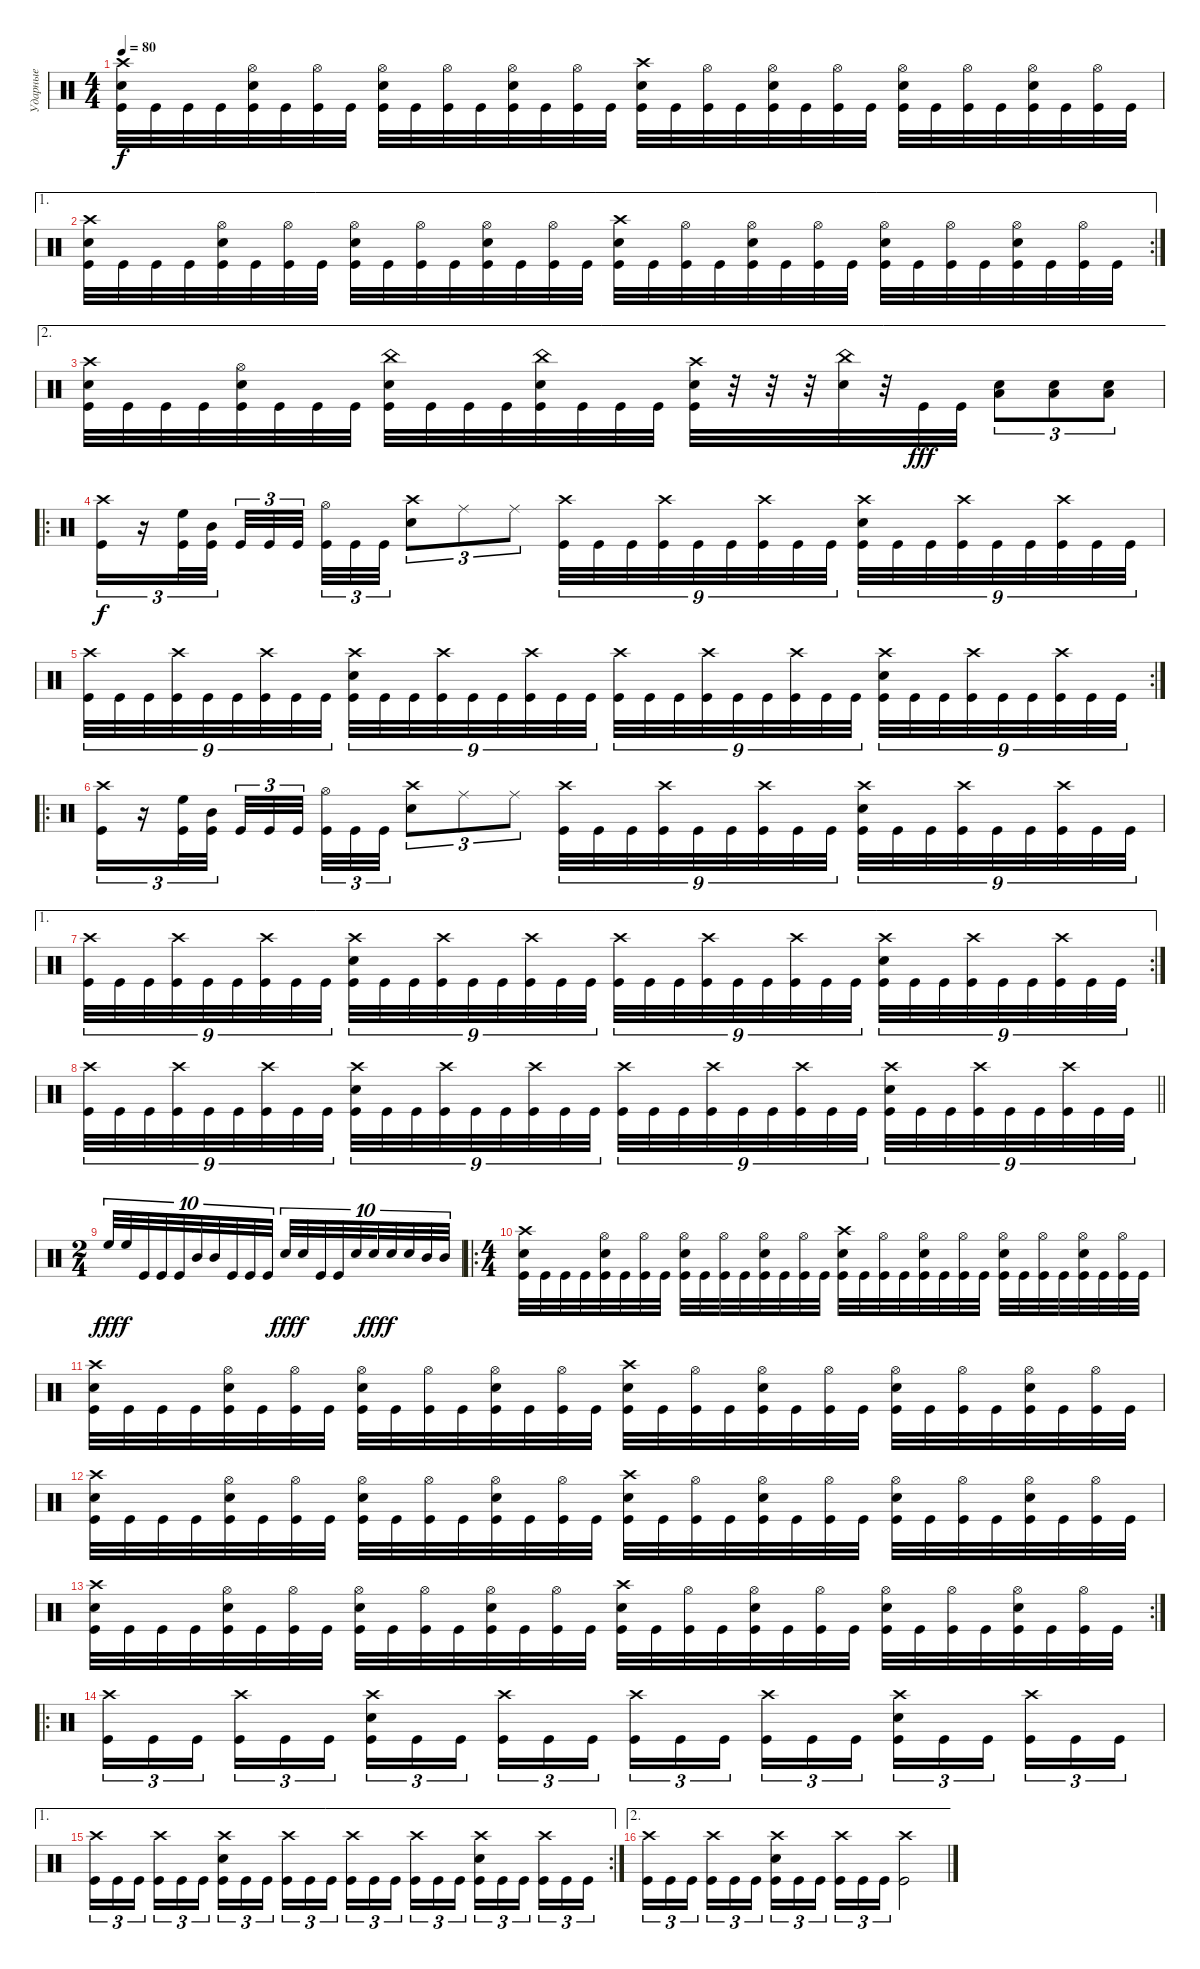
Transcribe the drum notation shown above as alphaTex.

\track ("Ударные" "Ударные") {instrument percussion}
\staff {score}
\articulation defaults
\ts (4 4)
\tempo 80
\clef neutral
\ks c
("Crash high (hit)" "Snare (hit) 2" "Kick (hit)").32{dy f} "Kick (hit)".32 "Kick (hit)".32 "Kick (hit)".32 ("Hi-Hat (open)" "Snare (hit) 2" "Kick (hit)").32 "Kick (hit)".32 ("Hi-Hat (open)" "Kick (hit)").32 "Kick (hit)".32 ("Hi-Hat (open)" "Snare (hit) 2" "Kick (hit)").32 "Kick (hit)".32 ("Hi-Hat (open)" "Kick (hit)").32 "Kick (hit)".32 ("Hi-Hat (open)" "Snare (hit) 2" "Kick (hit)").32 "Kick (hit)".32 ("Hi-Hat (open)" "Kick (hit)").32 "Kick (hit)".32 ("Crash high (hit)" "Snare (hit) 2" "Kick (hit)").32 "Kick (hit)".32 ("Hi-Hat (open)" "Kick (hit)").32 "Kick (hit)".32 ("Hi-Hat (open)" "Snare (hit) 2" "Kick (hit)").32 "Kick (hit)".32 ("Hi-Hat (open)" "Kick (hit)").32 "Kick (hit)".32 ("Hi-Hat (open)" "Snare (hit) 2" "Kick (hit)").32 "Kick (hit)".32 ("Hi-Hat (open)" "Kick (hit)").32 "Kick (hit)".32 ("Hi-Hat (open)" "Snare (hit) 2" "Kick (hit)").32 "Kick (hit)".32 ("Hi-Hat (open)" "Kick (hit)").32 "Kick (hit)".32 |
\ae 1
\rc 2
("Crash high (hit)" "Snare (hit) 2" "Kick (hit)").32 "Kick (hit)".32 "Kick (hit)".32 "Kick (hit)".32 ("Hi-Hat (open)" "Snare (hit) 2" "Kick (hit)").32 "Kick (hit)".32 ("Hi-Hat (open)" "Kick (hit)").32 "Kick (hit)".32 ("Hi-Hat (open)" "Snare (hit) 2" "Kick (hit)").32 "Kick (hit)".32 ("Hi-Hat (open)" "Kick (hit)").32 "Kick (hit)".32 ("Hi-Hat (open)" "Snare (hit) 2" "Kick (hit)").32 "Kick (hit)".32 ("Hi-Hat (open)" "Kick (hit)").32 "Kick (hit)".32 ("Crash high (hit)" "Snare (hit) 2" "Kick (hit)").32 "Kick (hit)".32 ("Hi-Hat (open)" "Kick (hit)").32 "Kick (hit)".32 ("Hi-Hat (open)" "Snare (hit) 2" "Kick (hit)").32 "Kick (hit)".32 ("Hi-Hat (open)" "Kick (hit)").32 "Kick (hit)".32 ("Hi-Hat (open)" "Snare (hit) 2" "Kick (hit)").32 "Kick (hit)".32 ("Hi-Hat (open)" "Kick (hit)").32 "Kick (hit)".32 ("Hi-Hat (open)" "Snare (hit) 2" "Kick (hit)").32 "Kick (hit)".32 ("Hi-Hat (open)" "Kick (hit)").32 "Kick (hit)".32 |
\ae 2
("Crash high (hit)" "Snare (hit) 2" "Kick (hit)").32 "Kick (hit)".32 "Kick (hit)".32 "Kick (hit)".32 ("Hi-Hat (open)" "Snare (hit) 2" "Kick (hit)").32 "Kick (hit)".32 "Kick (hit)".32 "Kick (hit)".32 ("China (hit)" "Snare (hit) 2" "Kick (hit)").32 "Kick (hit)".32 "Kick (hit)".32 "Kick (hit)".32 ("China (hit)" "Snare (hit) 2" "Kick (hit)").32 "Kick (hit)".32 "Kick (hit)".32 "Kick (hit)".32 ("Crash high (hit)" "Snare (hit) 2" "Kick (hit)").32 r.32 r.32 r.32 ("China (hit)" "Snare (hit) 2").32 r.32 "Kick (hit)".32{dy fff} "Kick (hit)".32 ("Low Floor Tom (hit)" "Snare (hit) 2").8{tu (3 2)} ("Low Floor Tom (hit)" "Snare (hit) 2").8{tu (3 2)} ("Low Floor Tom (hit)" "Snare (hit) 2").8{tu (3 2)} |
\ro
("Crash high (hit)" "Kick (hit)").16{tu (3 2) dy f} r.16{tu (3 2)} ("High Floor Tom (hit)" "Kick (hit)").32{tu (3 2)} ("Mid Tom (hit)" "Kick (hit)").32{tu (3 2) beam splitsecondary} "Kick (hit)".32{tu (3 2)} "Kick (hit)".32{tu (3 2)} "Kick (hit)".32{tu (3 2) beam splitsecondary} ("Hi-Hat (open)" "Kick (hit)").32{tu (3 2)} "Kick (hit)".32{tu (3 2)} "Kick (hit)".32{tu (3 2)} ("Crash high (hit)" "Snare (hit) 2").8{tu (3 2)} "Ride (middle)".8{tu (3 2)} "Ride (middle)".8{tu (3 2)} ("Crash high (hit)" "Kick (hit)").32{tu (9 8)} "Kick (hit)".32{tu (9 8)} "Kick (hit)".32{tu (9 8)} ("Crash high (hit)" "Kick (hit)").32{tu (9 8)} "Kick (hit)".32{tu (9 8)} "Kick (hit)".32{tu (9 8)} ("Crash high (hit)" "Kick (hit)").32{tu (9 8)} "Kick (hit)".32{tu (9 8)} "Kick (hit)".32{tu (9 8)} ("Snare (hit) 2" "Crash high (hit)" "Kick (hit)").32{tu (9 8)} "Kick (hit)".32{tu (9 8)} "Kick (hit)".32{tu (9 8)} ("Crash high (hit)" "Kick (hit)").32{tu (9 8)} "Kick (hit)".32{tu (9 8)} "Kick (hit)".32{tu (9 8)} ("Crash high (hit)" "Kick (hit)").32{tu (9 8)} "Kick (hit)".32{tu (9 8)} "Kick (hit)".32{tu (9 8)} |
\rc 2
("Crash high (hit)" "Kick (hit)").32{tu (9 8)} "Kick (hit)".32{tu (9 8)} "Kick (hit)".32{tu (9 8)} ("Crash high (hit)" "Kick (hit)").32{tu (9 8)} "Kick (hit)".32{tu (9 8)} "Kick (hit)".32{tu (9 8)} ("Crash high (hit)" "Kick (hit)").32{tu (9 8)} "Kick (hit)".32{tu (9 8)} "Kick (hit)".32{tu (9 8)} ("Snare (hit) 2" "Crash high (hit)" "Kick (hit)").32{tu (9 8)} "Kick (hit)".32{tu (9 8)} "Kick (hit)".32{tu (9 8)} ("Crash high (hit)" "Kick (hit)").32{tu (9 8)} "Kick (hit)".32{tu (9 8)} "Kick (hit)".32{tu (9 8)} ("Crash high (hit)" "Kick (hit)").32{tu (9 8)} "Kick (hit)".32{tu (9 8)} "Kick (hit)".32{tu (9 8)} ("Crash high (hit)" "Kick (hit)").32{tu (9 8)} "Kick (hit)".32{tu (9 8)} "Kick (hit)".32{tu (9 8)} ("Crash high (hit)" "Kick (hit)").32{tu (9 8)} "Kick (hit)".32{tu (9 8)} "Kick (hit)".32{tu (9 8)} ("Crash high (hit)" "Kick (hit)").32{tu (9 8)} "Kick (hit)".32{tu (9 8)} "Kick (hit)".32{tu (9 8)} ("Snare (hit) 2" "Crash high (hit)" "Kick (hit)").32{tu (9 8)} "Kick (hit)".32{tu (9 8)} "Kick (hit)".32{tu (9 8)} ("Crash high (hit)" "Kick (hit)").32{tu (9 8)} "Kick (hit)".32{tu (9 8)} "Kick (hit)".32{tu (9 8)} ("Crash high (hit)" "Kick (hit)").32{tu (9 8)} "Kick (hit)".32{tu (9 8)} "Kick (hit)".32{tu (9 8)} |
\ro
("Crash high (hit)" "Kick (hit)").16{tu (3 2)} r.16{tu (3 2)} ("High Floor Tom (hit)" "Kick (hit)").32{tu (3 2)} ("Mid Tom (hit)" "Kick (hit)").32{tu (3 2) beam splitsecondary} "Kick (hit)".32{tu (3 2)} "Kick (hit)".32{tu (3 2)} "Kick (hit)".32{tu (3 2) beam splitsecondary} ("Hi-Hat (open)" "Kick (hit)").32{tu (3 2)} "Kick (hit)".32{tu (3 2)} "Kick (hit)".32{tu (3 2)} ("Crash high (hit)" "Snare (hit) 2").8{tu (3 2)} "Ride (middle)".8{tu (3 2)} "Ride (middle)".8{tu (3 2)} ("Crash high (hit)" "Kick (hit)").32{tu (9 8)} "Kick (hit)".32{tu (9 8)} "Kick (hit)".32{tu (9 8)} ("Crash high (hit)" "Kick (hit)").32{tu (9 8)} "Kick (hit)".32{tu (9 8)} "Kick (hit)".32{tu (9 8)} ("Crash high (hit)" "Kick (hit)").32{tu (9 8)} "Kick (hit)".32{tu (9 8)} "Kick (hit)".32{tu (9 8)} ("Snare (hit) 2" "Crash high (hit)" "Kick (hit)").32{tu (9 8)} "Kick (hit)".32{tu (9 8)} "Kick (hit)".32{tu (9 8)} ("Crash high (hit)" "Kick (hit)").32{tu (9 8)} "Kick (hit)".32{tu (9 8)} "Kick (hit)".32{tu (9 8)} ("Crash high (hit)" "Kick (hit)").32{tu (9 8)} "Kick (hit)".32{tu (9 8)} "Kick (hit)".32{tu (9 8)} |
\ae 1
\rc 2
("Crash high (hit)" "Kick (hit)").32{tu (9 8)} "Kick (hit)".32{tu (9 8)} "Kick (hit)".32{tu (9 8)} ("Crash high (hit)" "Kick (hit)").32{tu (9 8)} "Kick (hit)".32{tu (9 8)} "Kick (hit)".32{tu (9 8)} ("Crash high (hit)" "Kick (hit)").32{tu (9 8)} "Kick (hit)".32{tu (9 8)} "Kick (hit)".32{tu (9 8)} ("Snare (hit) 2" "Crash high (hit)" "Kick (hit)").32{tu (9 8)} "Kick (hit)".32{tu (9 8)} "Kick (hit)".32{tu (9 8)} ("Crash high (hit)" "Kick (hit)").32{tu (9 8)} "Kick (hit)".32{tu (9 8)} "Kick (hit)".32{tu (9 8)} ("Crash high (hit)" "Kick (hit)").32{tu (9 8)} "Kick (hit)".32{tu (9 8)} "Kick (hit)".32{tu (9 8)} ("Crash high (hit)" "Kick (hit)").32{tu (9 8)} "Kick (hit)".32{tu (9 8)} "Kick (hit)".32{tu (9 8)} ("Crash high (hit)" "Kick (hit)").32{tu (9 8)} "Kick (hit)".32{tu (9 8)} "Kick (hit)".32{tu (9 8)} ("Crash high (hit)" "Kick (hit)").32{tu (9 8)} "Kick (hit)".32{tu (9 8)} "Kick (hit)".32{tu (9 8)} ("Snare (hit) 2" "Crash high (hit)" "Kick (hit)").32{tu (9 8)} "Kick (hit)".32{tu (9 8)} "Kick (hit)".32{tu (9 8)} ("Crash high (hit)" "Kick (hit)").32{tu (9 8)} "Kick (hit)".32{tu (9 8)} "Kick (hit)".32{tu (9 8)} ("Crash high (hit)" "Kick (hit)").32{tu (9 8)} "Kick (hit)".32{tu (9 8)} "Kick (hit)".32{tu (9 8)} |
\barLineRight lightlight
("Crash high (hit)" "Kick (hit)").32{tu (9 8)} "Kick (hit)".32{tu (9 8)} "Kick (hit)".32{tu (9 8)} ("Crash high (hit)" "Kick (hit)").32{tu (9 8)} "Kick (hit)".32{tu (9 8)} "Kick (hit)".32{tu (9 8)} ("Crash high (hit)" "Kick (hit)").32{tu (9 8)} "Kick (hit)".32{tu (9 8)} "Kick (hit)".32{tu (9 8)} ("Snare (hit) 2" "Crash high (hit)" "Kick (hit)").32{tu (9 8)} "Kick (hit)".32{tu (9 8)} "Kick (hit)".32{tu (9 8)} ("Crash high (hit)" "Kick (hit)").32{tu (9 8)} "Kick (hit)".32{tu (9 8)} "Kick (hit)".32{tu (9 8)} ("Crash high (hit)" "Kick (hit)").32{tu (9 8)} "Kick (hit)".32{tu (9 8)} "Kick (hit)".32{tu (9 8)} ("Crash high (hit)" "Kick (hit)").32{tu (9 8)} "Kick (hit)".32{tu (9 8)} "Kick (hit)".32{tu (9 8)} ("Crash high (hit)" "Kick (hit)").32{tu (9 8)} "Kick (hit)".32{tu (9 8)} "Kick (hit)".32{tu (9 8)} ("Crash high (hit)" "Kick (hit)").32{tu (9 8)} "Kick (hit)".32{tu (9 8)} "Kick (hit)".32{tu (9 8)} ("Snare (hit) 2" "Crash high (hit)" "Kick (hit)").32{tu (9 8)} "Kick (hit)".32{tu (9 8)} "Kick (hit)".32{tu (9 8)} ("Crash high (hit)" "Kick (hit)").32{tu (9 8)} "Kick (hit)".32{tu (9 8)} "Kick (hit)".32{tu (9 8)} ("Crash high (hit)" "Kick (hit)").32{tu (9 8)} "Kick (hit)".32{tu (9 8)} "Kick (hit)".32{tu (9 8)} |
\ts (2 4)
"High Floor Tom (hit)".32{tu (10 8) dy fff} "High Floor Tom (hit)".32{tu (10 8) dy f} "Kick (hit)".32{tu (10 8)} "Kick (hit)".32{tu (10 8)} "Kick (hit)".32{tu (10 8) beam splitsecondary} "Mid Tom (hit)".32{tu (10 8)} "Mid Tom (hit)".32{tu (10 8)} "Kick (hit)".32{tu (10 8)} "Kick (hit)".32{tu (10 8)} "Kick (hit)".32{tu (10 8)} "Snare (hit) 2".32{tu (10 8) dy fff} "Snare (hit) 2".32{tu (10 8) dy f} "Kick (hit)".32{tu (10 8)} "Kick (hit)".32{tu (10 8)} "Snare (hit) 2".32{tu (10 8) beam splitsecondary} "Snare (hit) 2".32{tu (10 8) dy fff} "Snare (hit) 2".32{tu (10 8) dy f} "Snare (hit) 2".32{tu (10 8)} "Mid Tom (hit)".32{tu (10 8)} "Mid Tom (hit)".32{tu (10 8)} |
\ro
\ts (4 4)
("Crash high (hit)" "Snare (hit) 2" "Kick (hit)").32 "Kick (hit)".32 "Kick (hit)".32 "Kick (hit)".32 ("Hi-Hat (open)" "Snare (hit) 2" "Kick (hit)").32 "Kick (hit)".32 ("Hi-Hat (open)" "Kick (hit)").32 "Kick (hit)".32 ("Hi-Hat (open)" "Snare (hit) 2" "Kick (hit)").32 "Kick (hit)".32 ("Hi-Hat (open)" "Kick (hit)").32 "Kick (hit)".32 ("Hi-Hat (open)" "Snare (hit) 2" "Kick (hit)").32 "Kick (hit)".32 ("Hi-Hat (open)" "Kick (hit)").32 "Kick (hit)".32 ("Crash high (hit)" "Snare (hit) 2" "Kick (hit)").32 "Kick (hit)".32 ("Hi-Hat (open)" "Kick (hit)").32 "Kick (hit)".32 ("Hi-Hat (open)" "Snare (hit) 2" "Kick (hit)").32 "Kick (hit)".32 ("Hi-Hat (open)" "Kick (hit)").32 "Kick (hit)".32 ("Hi-Hat (open)" "Snare (hit) 2" "Kick (hit)").32 "Kick (hit)".32 ("Hi-Hat (open)" "Kick (hit)").32 "Kick (hit)".32 ("Hi-Hat (open)" "Snare (hit) 2" "Kick (hit)").32 "Kick (hit)".32 ("Hi-Hat (open)" "Kick (hit)").32 "Kick (hit)".32 |
("Crash high (hit)" "Snare (hit) 2" "Kick (hit)").32 "Kick (hit)".32 "Kick (hit)".32 "Kick (hit)".32 ("Hi-Hat (open)" "Snare (hit) 2" "Kick (hit)").32 "Kick (hit)".32 ("Hi-Hat (open)" "Kick (hit)").32 "Kick (hit)".32 ("Hi-Hat (open)" "Snare (hit) 2" "Kick (hit)").32 "Kick (hit)".32 ("Hi-Hat (open)" "Kick (hit)").32 "Kick (hit)".32 ("Hi-Hat (open)" "Snare (hit) 2" "Kick (hit)").32 "Kick (hit)".32 ("Hi-Hat (open)" "Kick (hit)").32 "Kick (hit)".32 ("Crash high (hit)" "Snare (hit) 2" "Kick (hit)").32 "Kick (hit)".32 ("Hi-Hat (open)" "Kick (hit)").32 "Kick (hit)".32 ("Hi-Hat (open)" "Snare (hit) 2" "Kick (hit)").32 "Kick (hit)".32 ("Hi-Hat (open)" "Kick (hit)").32 "Kick (hit)".32 ("Hi-Hat (open)" "Snare (hit) 2" "Kick (hit)").32 "Kick (hit)".32 ("Hi-Hat (open)" "Kick (hit)").32 "Kick (hit)".32 ("Hi-Hat (open)" "Snare (hit) 2" "Kick (hit)").32 "Kick (hit)".32 ("Hi-Hat (open)" "Kick (hit)").32 "Kick (hit)".32 |
("Crash high (hit)" "Snare (hit) 2" "Kick (hit)").32 "Kick (hit)".32 "Kick (hit)".32 "Kick (hit)".32 ("Hi-Hat (open)" "Snare (hit) 2" "Kick (hit)").32 "Kick (hit)".32 ("Hi-Hat (open)" "Kick (hit)").32 "Kick (hit)".32 ("Hi-Hat (open)" "Snare (hit) 2" "Kick (hit)").32 "Kick (hit)".32 ("Hi-Hat (open)" "Kick (hit)").32 "Kick (hit)".32 ("Hi-Hat (open)" "Snare (hit) 2" "Kick (hit)").32 "Kick (hit)".32 ("Hi-Hat (open)" "Kick (hit)").32 "Kick (hit)".32 ("Crash high (hit)" "Snare (hit) 2" "Kick (hit)").32 "Kick (hit)".32 ("Hi-Hat (open)" "Kick (hit)").32 "Kick (hit)".32 ("Hi-Hat (open)" "Snare (hit) 2" "Kick (hit)").32 "Kick (hit)".32 ("Hi-Hat (open)" "Kick (hit)").32 "Kick (hit)".32 ("Hi-Hat (open)" "Snare (hit) 2" "Kick (hit)").32 "Kick (hit)".32 ("Hi-Hat (open)" "Kick (hit)").32 "Kick (hit)".32 ("Hi-Hat (open)" "Snare (hit) 2" "Kick (hit)").32 "Kick (hit)".32 ("Hi-Hat (open)" "Kick (hit)").32 "Kick (hit)".32 |
\rc 2
("Crash high (hit)" "Snare (hit) 2" "Kick (hit)").32 "Kick (hit)".32 "Kick (hit)".32 "Kick (hit)".32 ("Hi-Hat (open)" "Snare (hit) 2" "Kick (hit)").32 "Kick (hit)".32 ("Hi-Hat (open)" "Kick (hit)").32 "Kick (hit)".32 ("Hi-Hat (open)" "Snare (hit) 2" "Kick (hit)").32 "Kick (hit)".32 ("Hi-Hat (open)" "Kick (hit)").32 "Kick (hit)".32 ("Hi-Hat (open)" "Snare (hit) 2" "Kick (hit)").32 "Kick (hit)".32 ("Hi-Hat (open)" "Kick (hit)").32 "Kick (hit)".32 ("Crash high (hit)" "Snare (hit) 2" "Kick (hit)").32 "Kick (hit)".32 ("Hi-Hat (open)" "Kick (hit)").32 "Kick (hit)".32 ("Hi-Hat (open)" "Snare (hit) 2" "Kick (hit)").32 "Kick (hit)".32 ("Hi-Hat (open)" "Kick (hit)").32 "Kick (hit)".32 ("Hi-Hat (open)" "Snare (hit) 2" "Kick (hit)").32 "Kick (hit)".32 ("Hi-Hat (open)" "Kick (hit)").32 "Kick (hit)".32 ("Hi-Hat (open)" "Snare (hit) 2" "Kick (hit)").32 "Kick (hit)".32 ("Hi-Hat (open)" "Kick (hit)").32 "Kick (hit)".32 |
\ro
("Crash high (hit)" "Kick (hit)").16{tu (3 2)} "Kick (hit)".16{tu (3 2)} "Kick (hit)".16{tu (3 2) beam splitsecondary} ("Crash high (hit)" "Kick (hit)").16{tu (3 2)} "Kick (hit)".16{tu (3 2)} "Kick (hit)".16{tu (3 2)} ("Crash high (hit)" "Snare (hit) 2" "Kick (hit)").16{tu (3 2)} "Kick (hit)".16{tu (3 2)} "Kick (hit)".16{tu (3 2) beam splitsecondary} ("Crash high (hit)" "Kick (hit)").16{tu (3 2)} "Kick (hit)".16{tu (3 2)} "Kick (hit)".16{tu (3 2)} ("Crash high (hit)" "Kick (hit)").16{tu (3 2)} "Kick (hit)".16{tu (3 2)} "Kick (hit)".16{tu (3 2) beam splitsecondary} ("Crash high (hit)" "Kick (hit)").16{tu (3 2)} "Kick (hit)".16{tu (3 2)} "Kick (hit)".16{tu (3 2)} ("Crash high (hit)" "Snare (hit) 2" "Kick (hit)").16{tu (3 2)} "Kick (hit)".16{tu (3 2)} "Kick (hit)".16{tu (3 2) beam splitsecondary} ("Crash high (hit)" "Kick (hit)").16{tu (3 2)} "Kick (hit)".16{tu (3 2)} "Kick (hit)".16{tu (3 2)} |
\ae 1
\rc 2
("Crash high (hit)" "Kick (hit)").16{tu (3 2)} "Kick (hit)".16{tu (3 2)} "Kick (hit)".16{tu (3 2) beam splitsecondary} ("Crash high (hit)" "Kick (hit)").16{tu (3 2)} "Kick (hit)".16{tu (3 2)} "Kick (hit)".16{tu (3 2)} ("Crash high (hit)" "Snare (hit) 2" "Kick (hit)").16{tu (3 2)} "Kick (hit)".16{tu (3 2)} "Kick (hit)".16{tu (3 2) beam splitsecondary} ("Crash high (hit)" "Kick (hit)").16{tu (3 2)} "Kick (hit)".16{tu (3 2)} "Kick (hit)".16{tu (3 2)} ("Crash high (hit)" "Kick (hit)").16{tu (3 2)} "Kick (hit)".16{tu (3 2)} "Kick (hit)".16{tu (3 2) beam splitsecondary} ("Crash high (hit)" "Kick (hit)").16{tu (3 2)} "Kick (hit)".16{tu (3 2)} "Kick (hit)".16{tu (3 2)} ("Crash high (hit)" "Snare (hit) 2" "Kick (hit)").16{tu (3 2)} "Kick (hit)".16{tu (3 2)} "Kick (hit)".16{tu (3 2) beam splitsecondary} ("Crash high (hit)" "Kick (hit)").16{tu (3 2)} "Kick (hit)".16{tu (3 2)} "Kick (hit)".16{tu (3 2)} |
\ae 2
("Crash high (hit)" "Kick (hit)").16{tu (3 2)} "Kick (hit)".16{tu (3 2)} "Kick (hit)".16{tu (3 2) beam splitsecondary} ("Crash high (hit)" "Kick (hit)").16{tu (3 2)} "Kick (hit)".16{tu (3 2)} "Kick (hit)".16{tu (3 2)} ("Crash high (hit)" "Snare (hit) 2" "Kick (hit)").16{tu (3 2)} "Kick (hit)".16{tu (3 2)} "Kick (hit)".16{tu (3 2) beam splitsecondary} ("Crash high (hit)" "Kick (hit)").16{tu (3 2)} "Kick (hit)".16{tu (3 2)} "Kick (hit)".16{tu (3 2)} ("Kick (hit)" "Crash high (hit)").2
